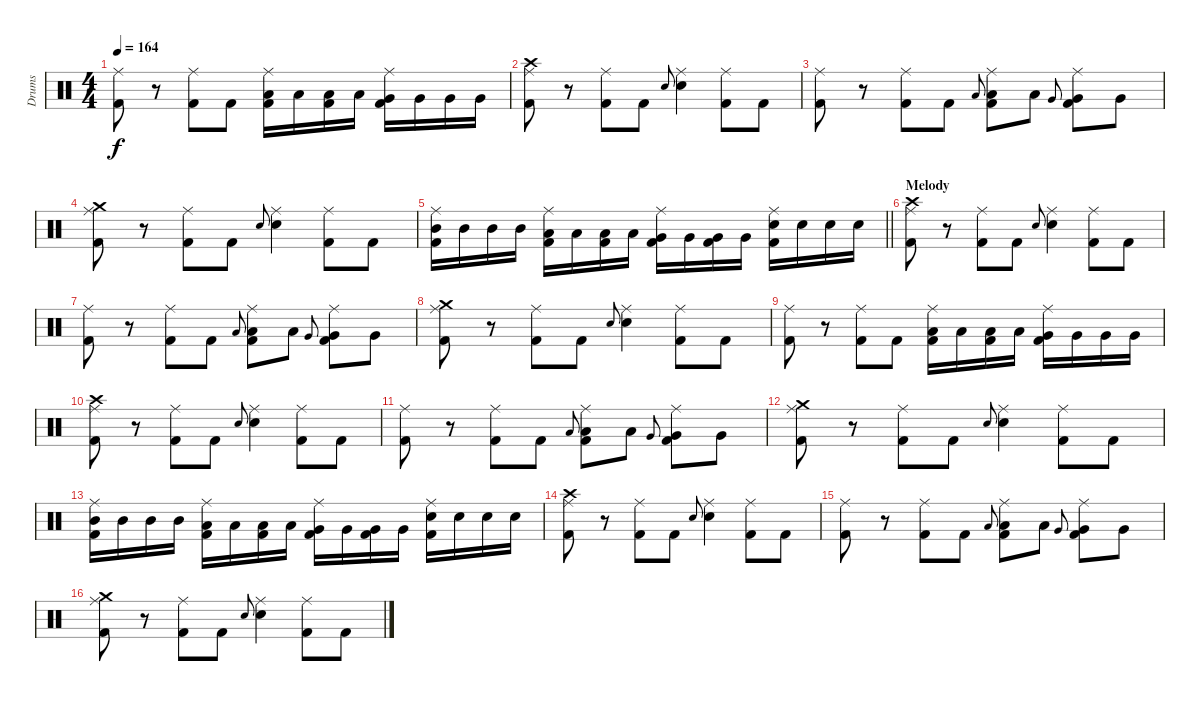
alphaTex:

\track ("Drums" "Drums") {instrument percussion}
\staff {score}
\articulation defaults
\ts (4 4)
\tempo 164
\clef neutral
\ks c
("Ride (middle)" "Kick (hit) 2").8{dy f} r.8 ("Ride (middle)" "Kick (hit) 2").8 "Kick (hit) 2".8 ("Ride (middle)" "Low Tom (hit)" "Kick (hit) 2").16 "Low Tom (hit)".16 ("Low Tom (hit)" "Kick (hit) 2").16 "Low Tom (hit)".16 ("Ride (middle)" "Very Low Tom (hit)" "Kick (hit) 2").16 "Very Low Tom (hit)".16 "Very Low Tom (hit)".16 "Very Low Tom (hit)".16 |
("Crash high (hit)" "Ride (middle)" "Kick (hit) 2").8 r.8 ("Ride (middle)" "Kick (hit) 2").8 "Kick (hit) 2".8 "Snare (hit) 2".8{gr onbeat} ("Ride (middle)" "Snare (hit) 2").4 ("Ride (middle)" "Kick (hit) 2").8 "Kick (hit) 2".8 |
("Ride (middle)" "Kick (hit) 2").8 r.8 ("Ride (middle)" "Kick (hit) 2").8 "Kick (hit) 2".8 "Low Tom (hit)".8{gr onbeat} ("Ride (middle)" "Low Tom (hit)" "Kick (hit) 2").8 "Low Tom (hit)".8 "Very Low Tom (hit)".8{gr onbeat} ("Ride (middle)" "Very Low Tom (hit)" "Kick (hit) 2").8 "Very Low Tom (hit)".8 |
("Crash medium (hit)" "Ride (middle)" "Kick (hit) 2").8 r.8 ("Ride (middle)" "Kick (hit) 2").8 "Kick (hit) 2".8 "Snare (hit) 2".8{gr onbeat} ("Ride (middle)" "Snare (hit) 2").4 ("Ride (middle)" "Kick (hit) 2").8 "Kick (hit) 2".8 |
\barLineRight lightlight
("Ride (middle)" "Mid Tom (hit)" "Kick (hit) 2").16 "Mid Tom (hit)".16 "Mid Tom (hit)".16 "Mid Tom (hit)".16 ("Ride (middle)" "Low Tom (hit)" "Kick (hit) 2").16 "Low Tom (hit)".16 ("Low Tom (hit)" "Kick (hit) 2").16 "Low Tom (hit)".16 ("Ride (middle)" "Very Low Tom (hit)" "Kick (hit) 2").16 "Very Low Tom (hit)".16 ("Very Low Tom (hit)" "Kick (hit) 2").16 "Very Low Tom (hit)".16 ("Ride (middle)" "Snare (hit) 2" "Kick (hit) 2").16 "Snare (hit) 2".16 "Snare (hit) 2".16 "Snare (hit) 2".16 |
\section ("" "Melody")
("Crash high (hit)" "Ride (middle)" "Kick (hit) 2").8 r.8 ("Ride (middle)" "Kick (hit) 2").8 "Kick (hit) 2".8 "Snare (hit) 2".8{gr onbeat} ("Ride (middle)" "Snare (hit) 2").4 ("Ride (middle)" "Kick (hit) 2").8 "Kick (hit) 2".8 |
("Ride (middle)" "Kick (hit) 2").8 r.8 ("Ride (middle)" "Kick (hit) 2").8 "Kick (hit) 2".8 "Low Tom (hit)".8{gr onbeat} ("Ride (middle)" "Low Tom (hit)" "Kick (hit) 2").8 "Low Tom (hit)".8 "Very Low Tom (hit)".8{gr onbeat} ("Ride (middle)" "Very Low Tom (hit)" "Kick (hit) 2").8 "Very Low Tom (hit)".8 |
("Crash medium (hit)" "Ride (middle)" "Kick (hit) 2").8 r.8 ("Ride (middle)" "Kick (hit) 2").8 "Kick (hit) 2".8 "Snare (hit) 2".8{gr onbeat} ("Ride (middle)" "Snare (hit) 2").4 ("Ride (middle)" "Kick (hit) 2").8 "Kick (hit) 2".8 |
("Ride (middle)" "Kick (hit) 2").8 r.8 ("Ride (middle)" "Kick (hit) 2").8 "Kick (hit) 2".8 ("Ride (middle)" "Low Tom (hit)" "Kick (hit) 2").16 "Low Tom (hit)".16 ("Low Tom (hit)" "Kick (hit) 2").16 "Low Tom (hit)".16 ("Ride (middle)" "Very Low Tom (hit)" "Kick (hit) 2").16 "Very Low Tom (hit)".16 "Very Low Tom (hit)".16 "Very Low Tom (hit)".16 |
("Crash high (hit)" "Ride (middle)" "Kick (hit) 2").8 r.8 ("Ride (middle)" "Kick (hit) 2").8 "Kick (hit) 2".8 "Snare (hit) 2".8{gr onbeat} ("Ride (middle)" "Snare (hit) 2").4 ("Ride (middle)" "Kick (hit) 2").8 "Kick (hit) 2".8 |
("Ride (middle)" "Kick (hit) 2").8 r.8 ("Ride (middle)" "Kick (hit) 2").8 "Kick (hit) 2".8 "Low Tom (hit)".8{gr onbeat} ("Ride (middle)" "Low Tom (hit)" "Kick (hit) 2").8 "Low Tom (hit)".8 "Very Low Tom (hit)".8{gr onbeat} ("Ride (middle)" "Very Low Tom (hit)" "Kick (hit) 2").8 "Very Low Tom (hit)".8 |
("Crash medium (hit)" "Ride (middle)" "Kick (hit) 2").8 r.8 ("Ride (middle)" "Kick (hit) 2").8 "Kick (hit) 2".8 "Snare (hit) 2".8{gr onbeat} ("Ride (middle)" "Snare (hit) 2").4 ("Ride (middle)" "Kick (hit) 2").8 "Kick (hit) 2".8 |
("Ride (middle)" "Mid Tom (hit)" "Kick (hit) 2").16 "Mid Tom (hit)".16 "Mid Tom (hit)".16 "Mid Tom (hit)".16 ("Ride (middle)" "Low Tom (hit)" "Kick (hit) 2").16 "Low Tom (hit)".16 ("Low Tom (hit)" "Kick (hit) 2").16 "Low Tom (hit)".16 ("Ride (middle)" "Very Low Tom (hit)" "Kick (hit) 2").16 "Very Low Tom (hit)".16 ("Very Low Tom (hit)" "Kick (hit) 2").16 "Very Low Tom (hit)".16 ("Ride (middle)" "Snare (hit) 2" "Kick (hit) 2").16 "Snare (hit) 2".16 "Snare (hit) 2".16 "Snare (hit) 2".16 |
("Crash high (hit)" "Ride (middle)" "Kick (hit) 2").8 r.8 ("Ride (middle)" "Kick (hit) 2").8 "Kick (hit) 2".8 "Snare (hit) 2".8{gr onbeat} ("Ride (middle)" "Snare (hit) 2").4 ("Ride (middle)" "Kick (hit) 2").8 "Kick (hit) 2".8 |
("Ride (middle)" "Kick (hit) 2").8 r.8 ("Ride (middle)" "Kick (hit) 2").8 "Kick (hit) 2".8 "Low Tom (hit)".8{gr onbeat} ("Ride (middle)" "Low Tom (hit)" "Kick (hit) 2").8 "Low Tom (hit)".8 "Very Low Tom (hit)".8{gr onbeat} ("Ride (middle)" "Very Low Tom (hit)" "Kick (hit) 2").8 "Very Low Tom (hit)".8 |
("Crash medium (hit)" "Ride (middle)" "Kick (hit) 2").8 r.8 ("Ride (middle)" "Kick (hit) 2").8 "Kick (hit) 2".8 "Snare (hit) 2".8{gr onbeat} ("Ride (middle)" "Snare (hit) 2").4 ("Ride (middle)" "Kick (hit) 2").8 "Kick (hit) 2".8
